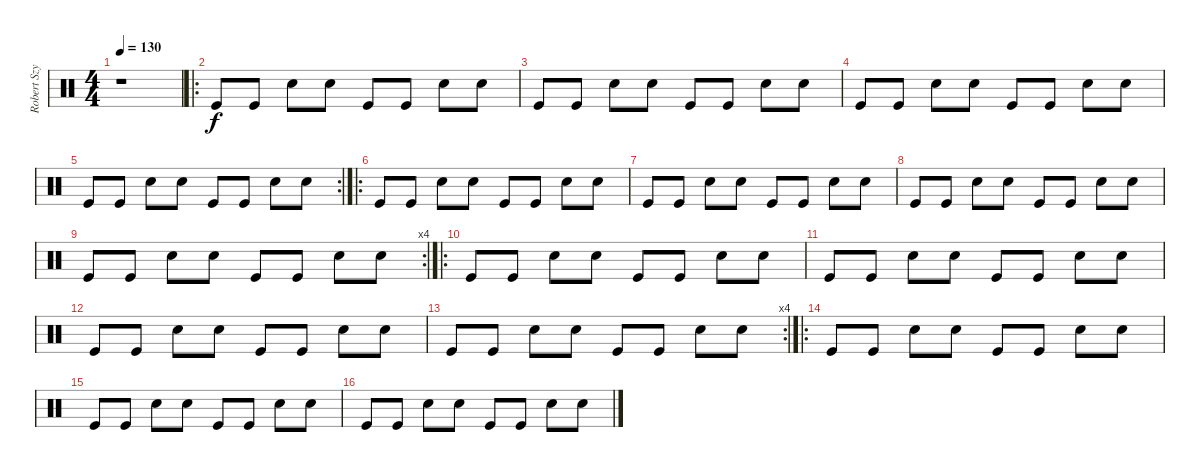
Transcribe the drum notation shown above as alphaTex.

\track ("Robert Szyszko" "Robert Szy") {instrument percussion}
\staff {score}
\articulation defaults
\ts (4 4)
\tempo 130
\clef neutral
\ks c
r.1{dy f} |
\ro "Kick (hit)".8 "Kick (hit)".8 "Snare (hit) 2".8 "Electric Snare (hit)".8 "Kick (hit)".8 "Kick (hit)".8 "Snare (hit) 2".8 "Electric Snare (hit)".8
|
"Kick (hit)".8 "Kick (hit)".8 "Snare (hit) 2".8 "Electric Snare (hit)".8 "Kick (hit)".8 "Kick (hit)".8 "Snare (hit) 2".8 "Electric Snare (hit)".8 |
"Kick (hit)".8 "Kick (hit)".8 "Snare (hit) 2".8 "Electric Snare (hit)".8 "Kick (hit)".8 "Kick (hit)".8 "Snare (hit) 2".8 "Electric Snare (hit)".8 |
\rc 2 "Kick (hit)".8 "Kick (hit)".8 "Snare (hit) 2".8 "Electric Snare (hit)".8 "Kick (hit)".8 "Kick (hit)".8 "Snare (hit) 2".8 "Electric Snare (hit)".8
|
\ro "Kick (hit)".8 "Kick (hit)".8 "Snare (hit) 2".8 "Electric Snare (hit)".8 "Kick (hit)".8 "Kick (hit)".8 "Snare (hit) 2".8 "Electric Snare (hit)".8
|
"Kick (hit)".8 "Kick (hit)".8 "Snare (hit) 2".8 "Electric Snare (hit)".8 "Kick (hit)".8 "Kick (hit)".8 "Snare (hit) 2".8 "Electric Snare (hit)".8 |
"Kick (hit)".8 "Kick (hit)".8 "Snare (hit) 2".8 "Electric Snare (hit)".8 "Kick (hit)".8 "Kick (hit)".8 "Snare (hit) 2".8 "Electric Snare (hit)".8 |
\rc 4 "Kick (hit)".8 "Kick (hit)".8 "Snare (hit) 2".8 "Electric Snare (hit)".8 "Kick (hit)".8 "Kick (hit)".8 "Snare (hit) 2".8 "Electric Snare (hit)".8
|
\ro "Kick (hit)".8 "Kick (hit)".8 "Snare (hit) 2".8 "Electric Snare (hit)".8 "Kick (hit)".8 "Kick (hit)".8 "Snare (hit) 2".8 "Electric Snare (hit)".8
|
"Kick (hit)".8 "Kick (hit)".8 "Snare (hit) 2".8 "Electric Snare (hit)".8 "Kick (hit)".8 "Kick (hit)".8 "Snare (hit) 2".8 "Electric Snare (hit)".8 |
"Kick (hit)".8 "Kick (hit)".8 "Snare (hit) 2".8 "Electric Snare (hit)".8 "Kick (hit)".8 "Kick (hit)".8 "Snare (hit) 2".8 "Electric Snare (hit)".8 |
\rc 4 "Kick (hit)".8 "Kick (hit)".8 "Snare (hit) 2".8 "Electric Snare (hit)".8 "Kick (hit)".8 "Kick (hit)".8 "Snare (hit) 2".8 "Electric Snare (hit)".8
|
\ro "Kick (hit)".8 "Kick (hit)".8 "Snare (hit) 2".8 "Electric Snare (hit)".8 "Kick (hit)".8 "Kick (hit)".8 "Snare (hit) 2".8 "Electric Snare (hit)".8
|
"Kick (hit)".8 "Kick (hit)".8 "Snare (hit) 2".8 "Electric Snare (hit)".8 "Kick (hit)".8 "Kick (hit)".8 "Snare (hit) 2".8 "Electric Snare (hit)".8 |
"Kick (hit)".8 "Kick (hit)".8 "Snare (hit) 2".8 "Electric Snare (hit)".8 "Kick (hit)".8 "Kick (hit)".8 "Snare (hit) 2".8 "Electric Snare (hit)".8
